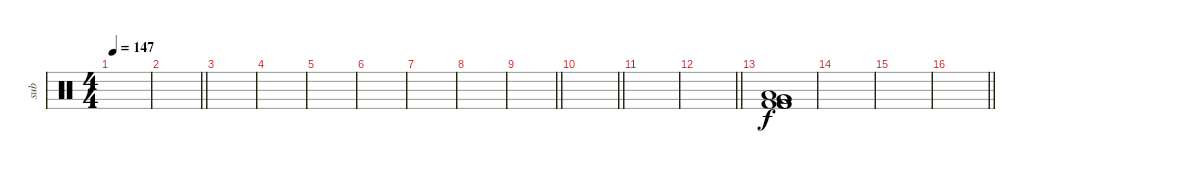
\track ("sub" "sub") {instrument percussion}
\staff {score}
\articulation defaults
\ts (4 4)
\tempo 147
\clef neutral
\ks c
|
\barLineRight lightlight
|
\section ("" "")
|
|
|
|
|
|
\barLineRight lightlight
|
\barLineRight lightlight
|
\section ("" "")
|
\barLineRight lightlight
|
\section ("" "")
("Low Floor Tom (hit)" "Very Low Tom (hit)" "Very Low Tom (hit)" "Kick (hit) 2" "Kick (hit) 2" "Kick (hit) 2").1 |
|
|
\barLineRight lightlight
